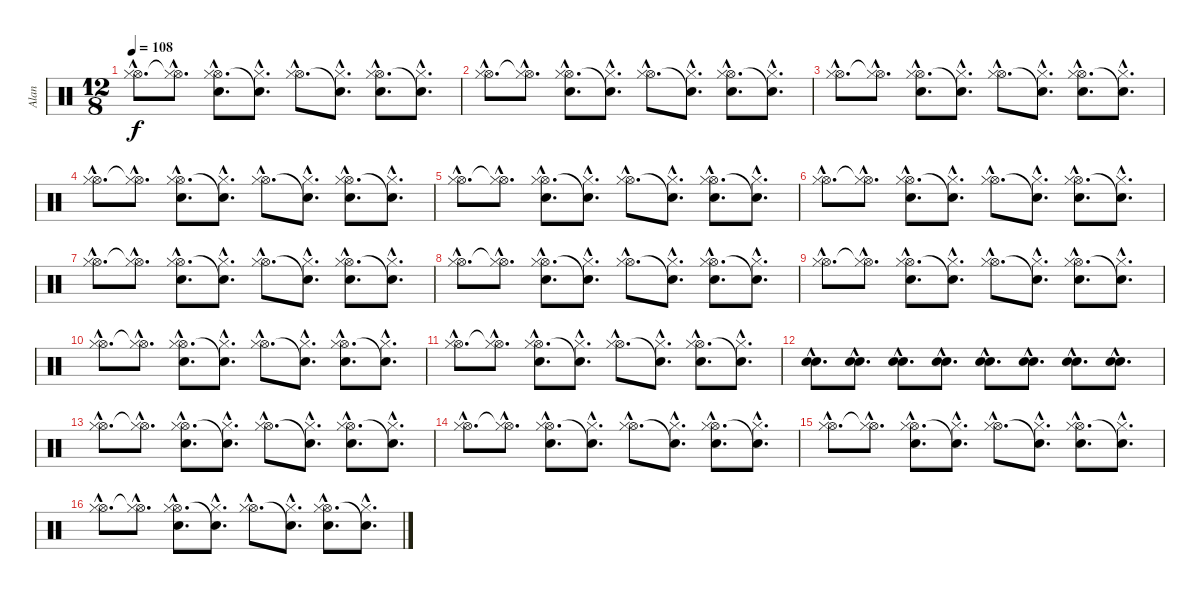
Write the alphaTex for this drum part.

\track ("Alan" "Alan") {instrument percussion}
\staff {score}
\articulation defaults
\ts (12 8)
\tempo 108
\clef neutral
\ks c
("Hi-Hat (open)"{hac} "Hi-Hat (closed)"{hac}).8{d dy f} ("Hi-Hat (open)"{hac t} "Hi-Hat (closed)"{hac}).8{d} ("Hi-Hat (open)"{hac} "Snare (hit) 2"{hac} "Hi-Hat (closed)"{hac}).8{d} ("Snare (hit)"{hac t} "Hi-Hat (closed)"{hac}).8{d} ("Hi-Hat (open)"{hac} "Hi-Hat (closed)"{hac}).8{d} ("Snare (hit)"{hac t} "Hi-Hat (closed)"{hac}).8{d} ("Hi-Hat (open)"{hac} "Snare (hit) 2"{hac} "Hi-Hat (closed)"{hac}).8{d} ("Snare (hit)"{hac t} "Hi-Hat (closed)"{hac}).8{d} |
("Hi-Hat (open)"{hac} "Hi-Hat (closed)"{hac}).8{d} ("Hi-Hat (open)"{hac t} "Hi-Hat (closed)"{hac}).8{d} ("Hi-Hat (open)"{hac} "Snare (hit) 2"{hac} "Hi-Hat (closed)"{hac}).8{d} ("Snare (hit)"{hac t} "Hi-Hat (closed)"{hac}).8{d} ("Hi-Hat (open)"{hac} "Hi-Hat (closed)"{hac}).8{d} ("Snare (hit)"{hac t} "Hi-Hat (closed)"{hac}).8{d} ("Hi-Hat (open)"{hac} "Snare (hit) 2"{hac} "Hi-Hat (closed)"{hac}).8{d} ("Snare (hit)"{hac t} "Hi-Hat (closed)"{hac}).8{d} |
("Hi-Hat (open)"{hac} "Hi-Hat (closed)"{hac}).8{d} ("Hi-Hat (open)"{hac t} "Hi-Hat (closed)"{hac}).8{d} ("Hi-Hat (open)"{hac} "Snare (hit) 2"{hac} "Hi-Hat (closed)"{hac}).8{d} ("Snare (hit)"{hac t} "Hi-Hat (closed)"{hac}).8{d} ("Hi-Hat (open)"{hac} "Hi-Hat (closed)"{hac}).8{d} ("Snare (hit)"{hac t} "Hi-Hat (closed)"{hac}).8{d} ("Hi-Hat (open)"{hac} "Snare (hit) 2"{hac} "Hi-Hat (closed)"{hac}).8{d} ("Snare (hit)"{hac t} "Hi-Hat (closed)"{hac}).8{d} |
("Hi-Hat (open)"{hac} "Hi-Hat (closed)"{hac}).8{d} ("Hi-Hat (open)"{hac t} "Hi-Hat (closed)"{hac}).8{d} ("Hi-Hat (open)"{hac} "Snare (hit) 2"{hac} "Hi-Hat (closed)"{hac}).8{d} ("Snare (hit)"{hac t} "Hi-Hat (closed)"{hac}).8{d} ("Hi-Hat (open)"{hac} "Hi-Hat (closed)"{hac}).8{d} ("Snare (hit)"{hac t} "Hi-Hat (closed)"{hac}).8{d} ("Hi-Hat (open)"{hac} "Snare (hit) 2"{hac} "Hi-Hat (closed)"{hac}).8{d} ("Snare (hit)"{hac t} "Hi-Hat (closed)"{hac}).8{d} |
("Hi-Hat (open)"{hac} "Hi-Hat (closed)"{hac}).8{d} ("Hi-Hat (open)"{hac t} "Hi-Hat (closed)"{hac}).8{d} ("Hi-Hat (open)"{hac} "Snare (hit) 2"{hac} "Hi-Hat (closed)"{hac}).8{d} ("Snare (hit)"{hac t} "Hi-Hat (closed)"{hac}).8{d} ("Hi-Hat (open)"{hac} "Hi-Hat (closed)"{hac}).8{d} ("Snare (hit)"{hac t} "Hi-Hat (closed)"{hac}).8{d} ("Hi-Hat (open)"{hac} "Snare (hit) 2"{hac} "Hi-Hat (closed)"{hac}).8{d} ("Snare (hit)"{hac t} "Hi-Hat (closed)"{hac}).8{d} |
("Hi-Hat (open)"{hac} "Hi-Hat (closed)"{hac}).8{d} ("Hi-Hat (open)"{hac t} "Hi-Hat (closed)"{hac}).8{d} ("Hi-Hat (open)"{hac} "Snare (hit) 2"{hac} "Hi-Hat (closed)"{hac}).8{d} ("Snare (hit)"{hac t} "Hi-Hat (closed)"{hac}).8{d} ("Hi-Hat (open)"{hac} "Hi-Hat (closed)"{hac}).8{d} ("Snare (hit)"{hac t} "Hi-Hat (closed)"{hac}).8{d} ("Hi-Hat (open)"{hac} "Snare (hit) 2"{hac} "Hi-Hat (closed)"{hac}).8{d} ("Snare (hit)"{hac t} "Hi-Hat (closed)"{hac}).8{d} |
("Hi-Hat (open)"{hac} "Hi-Hat (closed)"{hac}).8{d} ("Hi-Hat (open)"{hac t} "Hi-Hat (closed)"{hac}).8{d} ("Hi-Hat (open)"{hac} "Snare (hit) 2"{hac} "Hi-Hat (closed)"{hac}).8{d} ("Snare (hit)"{hac t} "Hi-Hat (closed)"{hac}).8{d} ("Hi-Hat (open)"{hac} "Hi-Hat (closed)"{hac}).8{d} ("Snare (hit)"{hac t} "Hi-Hat (closed)"{hac}).8{d} ("Hi-Hat (open)"{hac} "Snare (hit) 2"{hac} "Hi-Hat (closed)"{hac}).8{d} ("Snare (hit)"{hac t} "Hi-Hat (closed)"{hac}).8{d} |
("Hi-Hat (open)"{hac} "Hi-Hat (closed)"{hac}).8{d} ("Hi-Hat (open)"{hac t} "Hi-Hat (closed)"{hac}).8{d} ("Hi-Hat (open)"{hac} "Snare (hit) 2"{hac} "Hi-Hat (closed)"{hac}).8{d} ("Snare (hit)"{hac t} "Hi-Hat (closed)"{hac}).8{d} ("Hi-Hat (open)"{hac} "Hi-Hat (closed)"{hac}).8{d} ("Snare (hit)"{hac t} "Hi-Hat (closed)"{hac}).8{d} ("Hi-Hat (open)"{hac} "Snare (hit) 2"{hac} "Hi-Hat (closed)"{hac}).8{d} ("Snare (hit)"{hac t} "Hi-Hat (closed)"{hac}).8{d} |
("Hi-Hat (open)"{hac} "Hi-Hat (closed)"{hac}).8{d} ("Hi-Hat (open)"{hac t} "Hi-Hat (closed)"{hac}).8{d} ("Hi-Hat (open)"{hac} "Snare (hit) 2"{hac} "Hi-Hat (closed)"{hac}).8{d} ("Snare (hit)"{hac t} "Hi-Hat (closed)"{hac}).8{d} ("Hi-Hat (open)"{hac} "Hi-Hat (closed)"{hac}).8{d} ("Snare (hit)"{hac t} "Hi-Hat (closed)"{hac}).8{d} ("Hi-Hat (open)"{hac} "Snare (hit) 2"{hac} "Hi-Hat (closed)"{hac}).8{d} ("Snare (hit)"{hac t} "Hi-Hat (closed)"{hac}).8{d} |
("Hi-Hat (open)"{hac} "Hi-Hat (closed)"{hac}).8{d} ("Hi-Hat (open)"{hac t} "Hi-Hat (closed)"{hac}).8{d} ("Hi-Hat (open)"{hac} "Snare (hit) 2"{hac} "Hi-Hat (closed)"{hac}).8{d} ("Snare (hit)"{hac t} "Hi-Hat (closed)"{hac}).8{d} ("Hi-Hat (open)"{hac} "Hi-Hat (closed)"{hac}).8{d} ("Snare (hit)"{hac t} "Hi-Hat (closed)"{hac}).8{d} ("Hi-Hat (open)"{hac} "Snare (hit) 2"{hac} "Hi-Hat (closed)"{hac}).8{d} ("Snare (hit)"{hac t} "Hi-Hat (closed)"{hac}).8{d} |
("Hi-Hat (open)"{hac} "Hi-Hat (closed)"{hac}).8{d} ("Hi-Hat (open)"{hac t} "Hi-Hat (closed)"{hac}).8{d} ("Hi-Hat (open)"{hac} "Snare (hit) 2"{hac} "Hi-Hat (closed)"{hac}).8{d} ("Snare (hit)"{hac t} "Hi-Hat (closed)"{hac}).8{d} ("Hi-Hat (open)"{hac} "Hi-Hat (closed)"{hac}).8{d} ("Snare (hit)"{hac t} "Hi-Hat (closed)"{hac}).8{d} ("Hi-Hat (open)"{hac} "Snare (hit) 2"{hac} "Hi-Hat (closed)"{hac}).8{d} ("Snare (hit)"{hac t} "Hi-Hat (closed)"{hac}).8{d} |
("Electric Snare (hit)"{hac} "Snare (hit) 2"{hac}).8{d} ("Electric Snare (hit)"{hac} "Snare (hit) 2"{hac}).8{d} ("Electric Snare (hit)"{hac} "Snare (hit) 2"{hac}).8{d} ("Electric Snare (hit)"{hac} "Snare (hit) 2"{hac}).8{d} ("Electric Snare (hit)"{hac} "Snare (hit) 2"{hac}).8{d} ("Electric Snare (hit)"{hac} "Snare (hit) 2"{hac}).8{d} ("Electric Snare (hit)"{hac} "Snare (hit) 2"{hac}).8{d} ("Electric Snare (hit)"{hac} "Snare (hit) 2"{hac}).8{d} |
("Hi-Hat (open)"{hac} "Hi-Hat (closed)"{hac}).8{d} ("Hi-Hat (open)"{hac t} "Hi-Hat (closed)"{hac}).8{d} ("Hi-Hat (open)"{hac} "Snare (hit) 2"{hac} "Hi-Hat (closed)"{hac}).8{d} ("Snare (hit)"{hac t} "Hi-Hat (closed)"{hac}).8{d} ("Hi-Hat (open)"{hac} "Hi-Hat (closed)"{hac}).8{d} ("Snare (hit)"{hac t} "Hi-Hat (closed)"{hac}).8{d} ("Hi-Hat (open)"{hac} "Snare (hit) 2"{hac} "Hi-Hat (closed)"{hac}).8{d} ("Snare (hit)"{hac t} "Hi-Hat (closed)"{hac}).8{d} |
("Hi-Hat (open)"{hac} "Hi-Hat (closed)"{hac}).8{d} ("Hi-Hat (open)"{hac t} "Hi-Hat (closed)"{hac}).8{d} ("Hi-Hat (open)"{hac} "Snare (hit) 2"{hac} "Hi-Hat (closed)"{hac}).8{d} ("Snare (hit)"{hac t} "Hi-Hat (closed)"{hac}).8{d} ("Hi-Hat (open)"{hac} "Hi-Hat (closed)"{hac}).8{d} ("Snare (hit)"{hac t} "Hi-Hat (closed)"{hac}).8{d} ("Hi-Hat (open)"{hac} "Snare (hit) 2"{hac} "Hi-Hat (closed)"{hac}).8{d} ("Snare (hit)"{hac t} "Hi-Hat (closed)"{hac}).8{d} |
("Hi-Hat (open)"{hac} "Hi-Hat (closed)"{hac}).8{d} ("Hi-Hat (open)"{hac t} "Hi-Hat (closed)"{hac}).8{d} ("Hi-Hat (open)"{hac} "Snare (hit) 2"{hac} "Hi-Hat (closed)"{hac}).8{d} ("Snare (hit)"{hac t} "Hi-Hat (closed)"{hac}).8{d} ("Hi-Hat (open)"{hac} "Hi-Hat (closed)"{hac}).8{d} ("Snare (hit)"{hac t} "Hi-Hat (closed)"{hac}).8{d} ("Hi-Hat (open)"{hac} "Snare (hit) 2"{hac} "Hi-Hat (closed)"{hac}).8{d} ("Snare (hit)"{hac t} "Hi-Hat (closed)"{hac}).8{d} |
("Hi-Hat (open)"{hac} "Hi-Hat (closed)"{hac}).8{d} ("Hi-Hat (open)"{hac t} "Hi-Hat (closed)"{hac}).8{d} ("Hi-Hat (open)"{hac} "Snare (hit) 2"{hac} "Hi-Hat (closed)"{hac}).8{d} ("Snare (hit)"{hac t} "Hi-Hat (closed)"{hac}).8{d} ("Hi-Hat (open)"{hac} "Hi-Hat (closed)"{hac}).8{d} ("Snare (hit)"{hac t} "Hi-Hat (closed)"{hac}).8{d} ("Hi-Hat (open)"{hac} "Snare (hit) 2"{hac} "Hi-Hat (closed)"{hac}).8{d} ("Snare (hit)"{hac t} "Hi-Hat (closed)"{hac}).8{d}
